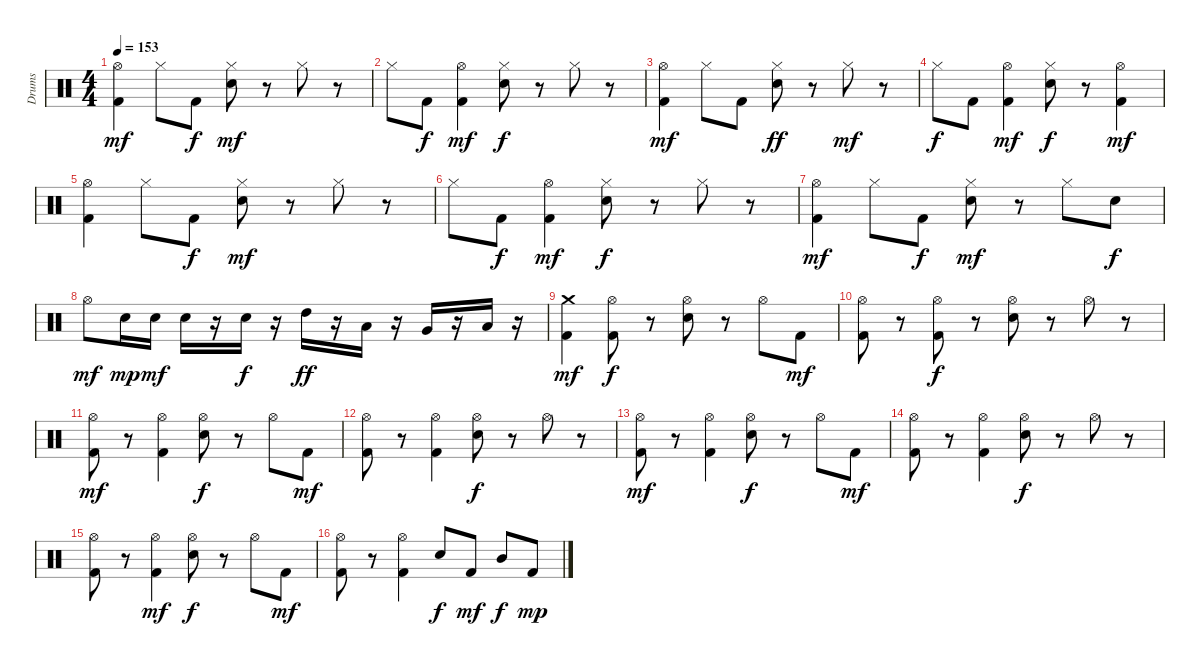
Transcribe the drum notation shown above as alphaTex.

\track ("Drums" "Drums") {instrument percussion}
\staff {score}
\articulation defaults
\ts (4 4)
\tempo 153
\clef neutral
\ks c
("Kick (hit) 2" "Hi-Hat (open)").4{dy mf} "Hi-Hat (closed)".8 "Kick (hit) 2".8{dy f} ("Electric Snare (hit)" "Hi-Hat (closed)").8{dy mf} r.8 "Hi-Hat (closed)".8 r.8 |
"Hi-Hat (closed)".8 "Kick (hit) 2".8{dy f} ("Kick (hit) 2" "Hi-Hat (open)").4{dy mf} ("Electric Snare (hit)" "Hi-Hat (closed)").8{dy f} r.8 "Hi-Hat (closed)".8 r.8 |
("Kick (hit) 2" "Hi-Hat (open)").4{dy mf} "Hi-Hat (closed)".8 "Kick (hit) 2".8 ("Electric Snare (hit)" "Hi-Hat (closed)").8{dy ff} r.8 "Hi-Hat (closed)".8{dy mf} r.8 |
"Hi-Hat (closed)".8{dy f} "Kick (hit) 2".8 ("Kick (hit) 2" "Hi-Hat (open)").4{dy mf} ("Electric Snare (hit)" "Hi-Hat (closed)").8{dy f} r.8 ("Kick (hit) 2" "Hi-Hat (open)").4{dy mf} |
("Kick (hit) 2" "Hi-Hat (open)").4 "Hi-Hat (closed)".8 "Kick (hit) 2".8{dy f} ("Electric Snare (hit)" "Hi-Hat (closed)").8{dy mf} r.8 "Hi-Hat (closed)".8 r.8 |
"Hi-Hat (closed)".8 "Kick (hit) 2".8{dy f} ("Kick (hit) 2" "Hi-Hat (open)").4{dy mf} ("Electric Snare (hit)" "Hi-Hat (closed)").8{dy f} r.8 "Hi-Hat (closed)".8 r.8 |
("Kick (hit) 2" "Hi-Hat (open)").4{dy mf} "Hi-Hat (closed)".8 "Kick (hit) 2".8{dy f} ("Electric Snare (hit)" "Hi-Hat (closed)").8{dy mf} r.8 "Hi-Hat (closed)".8 "Electric Snare (hit)".8{dy f} |
"Hi-Hat (open)".8{dy mf} "Electric Snare (hit)".16{dy mp} "Electric Snare (hit)".16{dy mf} "Electric Snare (hit)".16 r.16 "Electric Snare (hit)".16{dy f} r.16 "High Tom (hit)".16{dy ff} r.16 "Low Tom (hit)".16 r.16 "Very Low Tom (hit)".16 r.16 "Low Floor Tom (hit)".16 r.16 |
("Kick (hit) 2" "Crash medium (hit)").4{dy mf} ("Kick (hit) 2" "Hi-Hat (open)").8{dy f} r.8 ("Electric Snare (hit)" "Hi-Hat (open)").8 r.8 "Hi-Hat (open)".8 "Kick (hit) 2".8{dy mf} |
("Kick (hit) 2" "Hi-Hat (open)").8 r.8 ("Kick (hit) 2" "Hi-Hat (open)").8{dy f} r.8 ("Electric Snare (hit)" "Hi-Hat (open)").8 r.8 "Hi-Hat (open)".8 r.8 |
("Kick (hit) 2" "Hi-Hat (open)").8{dy mf} r.8 ("Kick (hit) 2" "Hi-Hat (open)").4 ("Electric Snare (hit)" "Hi-Hat (open)").8{dy f} r.8 "Hi-Hat (open)".8 "Kick (hit) 2".8{dy mf} |
("Kick (hit) 2" "Hi-Hat (open)").8 r.8 ("Kick (hit) 2" "Hi-Hat (open)").4 ("Electric Snare (hit)" "Hi-Hat (open)").8{dy f} r.8 "Hi-Hat (open)".8 r.8 |
("Kick (hit) 2" "Hi-Hat (open)").8{dy mf} r.8 ("Kick (hit) 2" "Hi-Hat (open)").4 ("Electric Snare (hit)" "Hi-Hat (open)").8{dy f} r.8 "Hi-Hat (open)".8 "Kick (hit) 2".8{dy mf} |
("Kick (hit) 2" "Hi-Hat (open)").8 r.8 ("Kick (hit) 2" "Hi-Hat (open)").4 ("Electric Snare (hit)" "Hi-Hat (open)").8{dy f} r.8 "Hi-Hat (open)".8 r.8 |
("Kick (hit) 2" "Hi-Hat (open)").8 r.8 ("Kick (hit) 2" "Hi-Hat (open)").4{dy mf} ("Electric Snare (hit)" "Hi-Hat (open)").8{dy f} r.8 "Hi-Hat (open)".8 "Kick (hit) 2".8{dy mf} |
("Kick (hit) 2" "Hi-Hat (open)").8 r.8 ("Kick (hit) 2" "Hi-Hat (open)").4 "Electric Snare (hit)".8{dy f} "Kick (hit) 2".8{dy mf} "Mid Tom (hit)".8{dy f} "Kick (hit) 2".8{dy mp}
